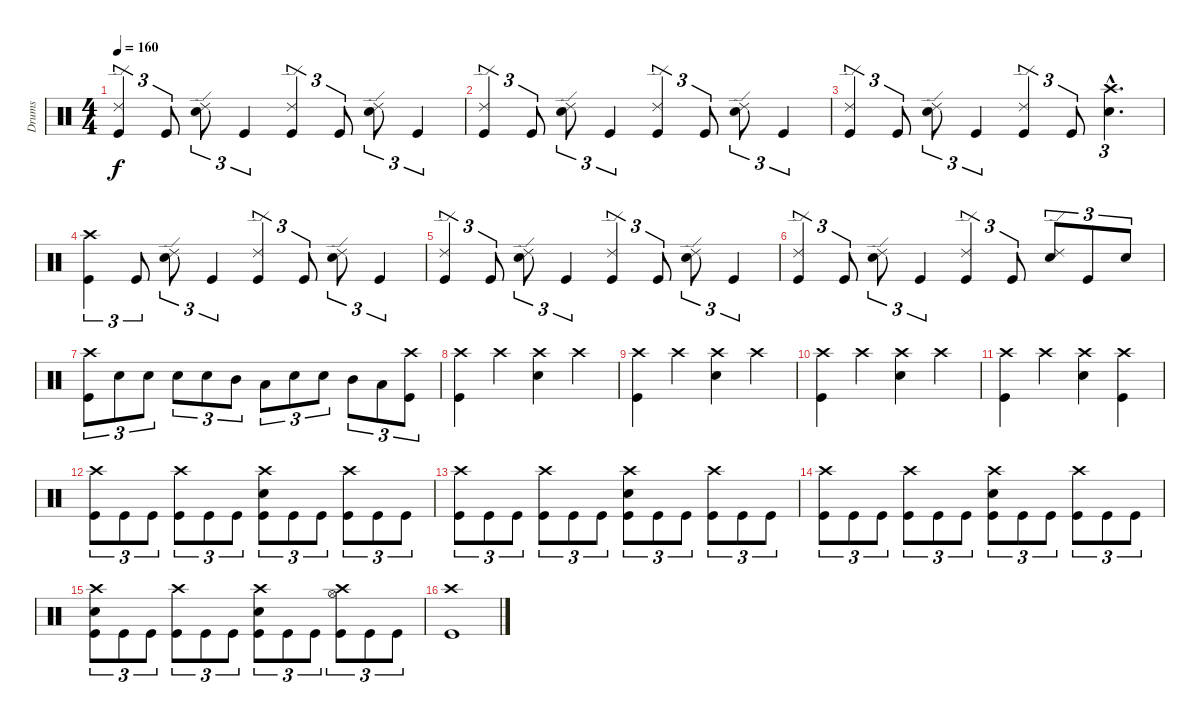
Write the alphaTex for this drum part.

\track ("Drums" "Drums") {instrument percussion}
\staff {score}
\articulation defaults
\ts (4 4)
\tempo 160
\clef neutral
\ks c
("Ride (edge) 2" "Kick (hit)").4{tu (3 2) dy f} "Kick (hit)".8{tu (3 2)} ("Ride (edge) 2" "Electric Snare (hit)").8{tu (3 2)} "Kick (hit)".4{tu (3 2)} ("Ride (edge) 2" "Kick (hit)").4{tu (3 2)} "Kick (hit)".8{tu (3 2)} ("Ride (edge) 2" "Electric Snare (hit)").8{tu (3 2)} "Kick (hit)".4{tu (3 2)} |
("Ride (edge) 2" "Kick (hit)").4{tu (3 2)} "Kick (hit)".8{tu (3 2)} ("Ride (edge) 2" "Electric Snare (hit)").8{tu (3 2)} "Kick (hit)".4{tu (3 2)} ("Ride (edge) 2" "Kick (hit)").4{tu (3 2)} "Kick (hit)".8{tu (3 2)} ("Ride (edge) 2" "Electric Snare (hit)").8{tu (3 2)} "Kick (hit)".4{tu (3 2)} |
("Ride (edge) 2" "Kick (hit)").4{tu (3 2)} "Kick (hit)".8{tu (3 2)} ("Ride (edge) 2" "Electric Snare (hit)").8{tu (3 2)} "Kick (hit)".4{tu (3 2)} ("Ride (edge) 2" "Kick (hit)").4{tu (3 2)} "Kick (hit)".8{tu (3 2)} ("Crash high (hit)"{hac} "Electric Snare (hit)"{hac}).4{d tu (3 2)} |
("Crash high (hit)" "Kick (hit)").4{tu (3 2)} "Kick (hit)".8{tu (3 2)} ("Ride (edge) 2" "Electric Snare (hit)").8{tu (3 2)} "Kick (hit)".4{tu (3 2)} ("Ride (edge) 2" "Kick (hit)").4{tu (3 2)} "Kick (hit)".8{tu (3 2)} ("Ride (edge) 2" "Electric Snare (hit)").8{tu (3 2)} "Kick (hit)".4{tu (3 2)} |
("Ride (edge) 2" "Kick (hit)").4{tu (3 2)} "Kick (hit)".8{tu (3 2)} ("Ride (edge) 2" "Electric Snare (hit)").8{tu (3 2)} "Kick (hit)".4{tu (3 2)} ("Ride (edge) 2" "Kick (hit)").4{tu (3 2)} "Kick (hit)".8{tu (3 2)} ("Ride (edge) 2" "Electric Snare (hit)").8{tu (3 2)} "Kick (hit)".4{tu (3 2)} |
("Ride (edge) 2" "Kick (hit)").4{tu (3 2)} "Kick (hit)".8{tu (3 2)} ("Ride (edge) 2" "Electric Snare (hit)").8{tu (3 2)} "Kick (hit)".4{tu (3 2)} ("Ride (edge) 2" "Kick (hit)").4{tu (3 2)} "Kick (hit)".8{tu (3 2)} ("Ride (edge) 2" "Electric Snare (hit)").8{tu (3 2)} "Kick (hit)".8{tu (3 2)} "Electric Snare (hit)".8{tu (3 2)} |
("Crash high (hit)" "Kick (hit)").8{tu (3 2)} "Electric Snare (hit)".8{tu (3 2)} "Electric Snare (hit)".8{tu (3 2)} "Electric Snare (hit)".8{tu (3 2)} "Electric Snare (hit)".8{tu (3 2)} "Mid Tom (hit)".8{tu (3 2)} "Low Tom (hit)".8{tu (3 2)} "Electric Snare (hit)".8{tu (3 2)} "Electric Snare (hit)".8{tu (3 2)} "Mid Tom (hit)".8{tu (3 2)} "Low Tom (hit)".8{tu (3 2)} ("Crash high (hit)" "Kick (hit)").8{tu (3 2)} |
("Crash high (hit)" "Kick (hit)").4 "Crash high (hit)".4 ("Crash high (hit)" "Electric Snare (hit)").4 "Crash high (hit)".4 |
("Crash high (hit)" "Kick (hit)").4 "Crash high (hit)".4 ("Crash high (hit)" "Electric Snare (hit)").4 "Crash high (hit)".4 |
("Crash high (hit)" "Kick (hit)").4 "Crash high (hit)".4 ("Crash high (hit)" "Electric Snare (hit)").4 "Crash high (hit)".4 |
("Crash high (hit)" "Kick (hit)").4 "Crash high (hit)".4 ("Crash high (hit)" "Electric Snare (hit)").4 ("Crash high (hit)" "Kick (hit)").4 |
("Crash high (hit)" "Kick (hit)").8{tu (3 2)} "Kick (hit)".8{tu (3 2)} "Kick (hit)".8{tu (3 2)} ("Crash high (hit)" "Kick (hit)").8{tu (3 2)} "Kick (hit)".8{tu (3 2)} "Kick (hit)".8{tu (3 2)} ("Electric Snare (hit)" "Crash high (hit)" "Kick (hit)").8{tu (3 2)} "Kick (hit)".8{tu (3 2)} "Kick (hit)".8{tu (3 2)} ("Crash high (hit)" "Kick (hit)").8{tu (3 2)} "Kick (hit)".8{tu (3 2)} "Kick (hit)".8{tu (3 2)} |
("Crash high (hit)" "Kick (hit)").8{tu (3 2)} "Kick (hit)".8{tu (3 2)} "Kick (hit)".8{tu (3 2)} ("Crash high (hit)" "Kick (hit)").8{tu (3 2)} "Kick (hit)".8{tu (3 2)} "Kick (hit)".8{tu (3 2)} ("Electric Snare (hit)" "Crash high (hit)" "Kick (hit)").8{tu (3 2)} "Kick (hit)".8{tu (3 2)} "Kick (hit)".8{tu (3 2)} ("Crash high (hit)" "Kick (hit)").8{tu (3 2)} "Kick (hit)".8{tu (3 2)} "Kick (hit)".8{tu (3 2)} |
("Crash high (hit)" "Kick (hit)").8{tu (3 2)} "Kick (hit)".8{tu (3 2)} "Kick (hit)".8{tu (3 2)} ("Crash high (hit)" "Kick (hit)").8{tu (3 2)} "Kick (hit)".8{tu (3 2)} "Kick (hit)".8{tu (3 2)} ("Electric Snare (hit)" "Crash high (hit)" "Kick (hit)").8{tu (3 2)} "Kick (hit)".8{tu (3 2)} "Kick (hit)".8{tu (3 2)} ("Crash high (hit)" "Kick (hit)").8{tu (3 2)} "Kick (hit)".8{tu (3 2)} "Kick (hit)".8{tu (3 2)} |
("Electric Snare (hit)" "Crash high (hit)" "Kick (hit)").8{tu (3 2)} "Kick (hit)".8{tu (3 2)} "Kick (hit)".8{tu (3 2)} ("Crash high (hit)" "Kick (hit)").8{tu (3 2)} "Kick (hit)".8{tu (3 2)} "Kick (hit)".8{tu (3 2)} ("Electric Snare (hit)" "Crash high (hit)" "Kick (hit)").8{tu (3 2)} "Kick (hit)".8{tu (3 2)} "Kick (hit)".8{tu (3 2)} ("Hi-Hat (open)" "Crash high (hit)" "Kick (hit)").8{tu (3 2)} "Kick (hit)".8{tu (3 2)} "Kick (hit)".8{tu (3 2)} |
("Crash high (hit)" "Kick (hit)").1
